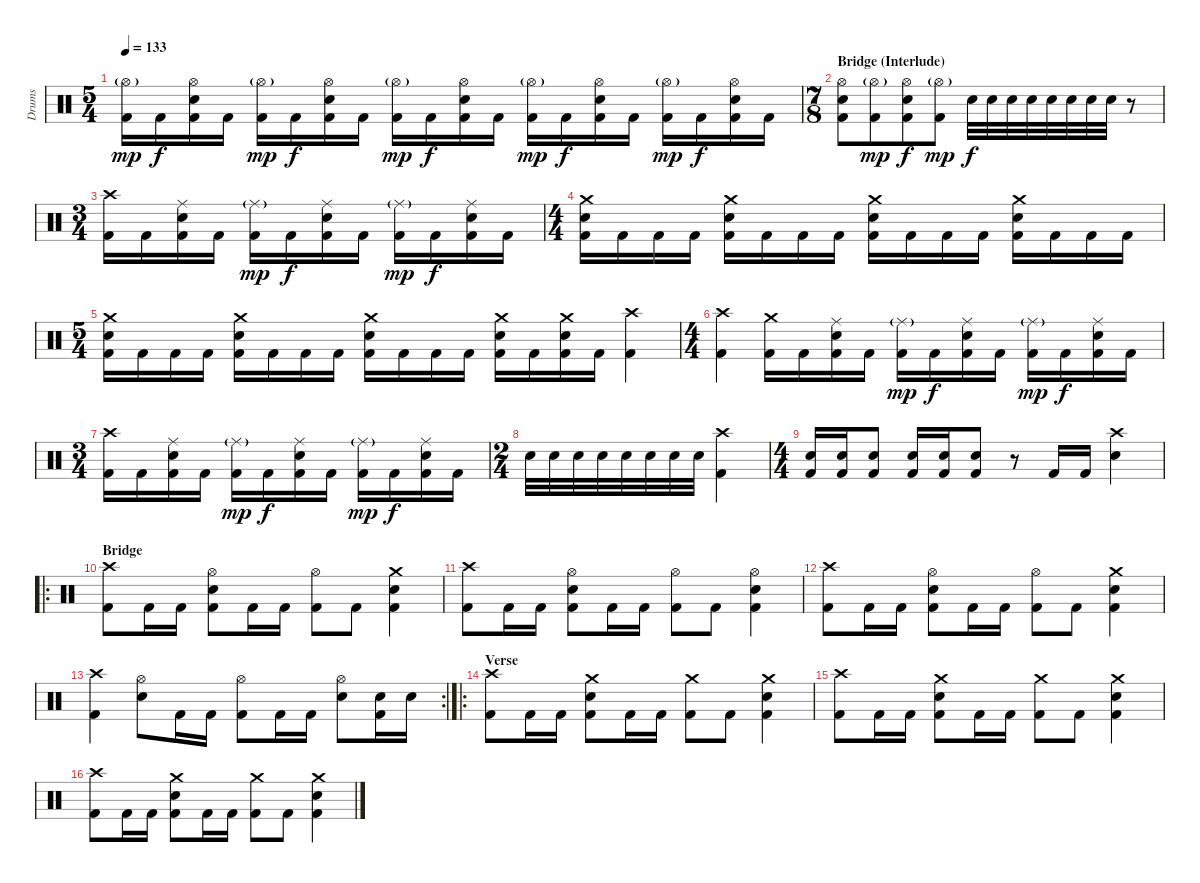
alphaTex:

\track ("Drums" "Drums") {instrument percussion}
\staff {score}
\articulation defaults
\ts (5 4)
\tempo 133
\clef neutral
\ks c
("Hi-Hat (open)"{g} "Kick (hit) 2").16{dy mp} "Kick (hit) 2".16{dy f} ("Hi-Hat (open)" "Electric Snare (hit)" "Kick (hit) 2").16 "Kick (hit) 2".16 ("Hi-Hat (open)"{g} "Kick (hit) 2").16{dy mp} "Kick (hit) 2".16{dy f} ("Hi-Hat (open)" "Electric Snare (hit)" "Kick (hit) 2").16 "Kick (hit) 2".16 ("Hi-Hat (open)"{g} "Kick (hit) 2").16{dy mp} "Kick (hit) 2".16{dy f} ("Hi-Hat (open)" "Electric Snare (hit)" "Kick (hit) 2").16 "Kick (hit) 2".16 ("Hi-Hat (open)"{g} "Kick (hit) 2").16{dy mp} "Kick (hit) 2".16{dy f} ("Hi-Hat (open)" "Electric Snare (hit)" "Kick (hit) 2").16 "Kick (hit) 2".16 ("Hi-Hat (open)"{g} "Kick (hit) 2").16{dy mp} "Kick (hit) 2".16{dy f} ("Hi-Hat (open)" "Electric Snare (hit)" "Kick (hit) 2").16 "Kick (hit) 2".16 |
\ts (7 8)
\section ("" "Bridge (Interlude)")
("Hi-Hat (open)" "Electric Snare (hit)" "Kick (hit) 2").8 ("Hi-Hat (open)"{g} "Kick (hit) 2").8{dy mp} ("Hi-Hat (open)" "Electric Snare (hit)" "Kick (hit) 2").8{dy f} ("Hi-Hat (open)"{g} "Kick (hit) 2").8{dy mp} "Electric Snare (hit)".32{dy f} "Electric Snare (hit)".32 "Electric Snare (hit)".32 "Electric Snare (hit)".32 "Electric Snare (hit)".32 "Electric Snare (hit)".32 "Electric Snare (hit)".32 "Electric Snare (hit)".32 r.8 |
\ts (3 4)
("Crash high (hit)" "Kick (hit) 2").16 "Kick (hit) 2".16 ("Ride (middle)" "Electric Snare (hit)" "Kick (hit) 2").16 "Kick (hit) 2".16 ("Ride (middle)"{g} "Kick (hit) 2").16{dy mp} "Kick (hit) 2".16{dy f} ("Ride (middle)" "Electric Snare (hit)" "Kick (hit) 2").16 "Kick (hit) 2".16 ("Ride (middle)"{g} "Kick (hit) 2").16{dy mp} "Kick (hit) 2".16{dy f} ("Ride (middle)" "Electric Snare (hit)" "Kick (hit) 2").16 "Kick (hit) 2".16 |
\ts (4 4)
("Crash medium (hit)" "Electric Snare (hit)" "Kick (hit) 2").16 "Kick (hit) 2".16 "Kick (hit) 2".16 "Kick (hit) 2".16 ("Crash medium (hit)" "Electric Snare (hit)" "Kick (hit) 2").16 "Kick (hit) 2".16 "Kick (hit) 2".16 "Kick (hit) 2".16 ("Crash medium (hit)" "Electric Snare (hit)" "Kick (hit) 2").16 "Kick (hit) 2".16 "Kick (hit) 2".16 "Kick (hit) 2".16 ("Crash medium (hit)" "Electric Snare (hit)" "Kick (hit) 2").16 "Kick (hit) 2".16 "Kick (hit) 2".16 "Kick (hit) 2".16 |
\ts (5 4)
("Crash medium (hit)" "Electric Snare (hit)" "Kick (hit) 2").16 "Kick (hit) 2".16 "Kick (hit) 2".16 "Kick (hit) 2".16 ("Crash medium (hit)" "Electric Snare (hit)" "Kick (hit) 2").16 "Kick (hit) 2".16 "Kick (hit) 2".16 "Kick (hit) 2".16 ("Crash medium (hit)" "Electric Snare (hit)" "Kick (hit) 2").16 "Kick (hit) 2".16 "Kick (hit) 2".16 "Kick (hit) 2".16 ("Crash medium (hit)" "Electric Snare (hit)" "Kick (hit) 2").16 "Kick (hit) 2".16 ("Crash medium (hit)" "Electric Snare (hit)" "Kick (hit) 2").16 "Kick (hit) 2".16 ("Crash high (hit)" "Kick (hit) 2").4 |
\ts (4 4)
("Crash high (hit)" "Kick (hit) 2").4 ("Crash medium (hit)" "Kick (hit) 2").16 "Kick (hit) 2".16 ("Ride (middle)" "Electric Snare (hit)" "Kick (hit) 2").16 "Kick (hit) 2".16 ("Ride (middle)"{g} "Kick (hit) 2").16{dy mp} "Kick (hit) 2".16{dy f} ("Ride (middle)" "Electric Snare (hit)" "Kick (hit) 2").16 "Kick (hit) 2".16 ("Ride (middle)"{g} "Kick (hit) 2").16{dy mp} "Kick (hit) 2".16{dy f} ("Ride (middle)" "Electric Snare (hit)" "Kick (hit) 2").16 "Kick (hit) 2".16 |
\ts (3 4)
("Crash high (hit)" "Kick (hit) 2").16 "Kick (hit) 2".16 ("Ride (middle)" "Electric Snare (hit)" "Kick (hit) 2").16 "Kick (hit) 2".16 ("Ride (middle)"{g} "Kick (hit) 2").16{dy mp} "Kick (hit) 2".16{dy f} ("Ride (middle)" "Electric Snare (hit)" "Kick (hit) 2").16 "Kick (hit) 2".16 ("Ride (middle)"{g} "Kick (hit) 2").16{dy mp} "Kick (hit) 2".16{dy f} ("Ride (middle)" "Electric Snare (hit)" "Kick (hit) 2").16 "Kick (hit) 2".16 |
\ts (2 4)
"Electric Snare (hit)".32 "Electric Snare (hit)".32 "Electric Snare (hit)".32 "Electric Snare (hit)".32 "Electric Snare (hit)".32 "Electric Snare (hit)".32 "Electric Snare (hit)".32 "Electric Snare (hit)".32 ("Crash high (hit)" "Kick (hit) 2").4 |
\ts (4 4)
("Electric Snare (hit)" "Kick (hit) 2").16 ("Electric Snare (hit)" "Kick (hit) 2").16 ("Electric Snare (hit)" "Kick (hit) 2").8 ("Electric Snare (hit)" "Kick (hit) 2").16 ("Electric Snare (hit)" "Kick (hit) 2").16 ("Electric Snare (hit)" "Kick (hit) 2").8 r.8 "Kick (hit) 2".16 "Kick (hit) 2".16 ("Crash high (hit)" "Electric Snare (hit)").4 |
\ro
\section ("" "Bridge")
("Crash high (hit)" "Kick (hit) 2").8 "Kick (hit) 2".16 "Kick (hit) 2".16 ("Hi-Hat (open)" "Electric Snare (hit)" "Kick (hit) 2").8 "Kick (hit) 2".16 "Kick (hit) 2".16 ("Hi-Hat (open)" "Kick (hit) 2").8 "Kick (hit) 2".8 ("Crash medium (hit)" "Electric Snare (hit)" "Kick (hit) 2").4 |
("Crash high (hit)" "Kick (hit) 2").8 "Kick (hit) 2".16 "Kick (hit) 2".16 ("Hi-Hat (open)" "Electric Snare (hit)" "Kick (hit) 2").8 "Kick (hit) 2".16 "Kick (hit) 2".16 ("Hi-Hat (open)" "Kick (hit) 2").8 "Kick (hit) 2".8 ("Hi-Hat (open)" "Electric Snare (hit)" "Kick (hit) 2").4 |
("Crash high (hit)" "Kick (hit) 2").8 "Kick (hit) 2".16 "Kick (hit) 2".16 ("Hi-Hat (open)" "Electric Snare (hit)" "Kick (hit) 2").8 "Kick (hit) 2".16 "Kick (hit) 2".16 ("Hi-Hat (open)" "Kick (hit) 2").8 "Kick (hit) 2".8 ("Crash medium (hit)" "Electric Snare (hit)" "Kick (hit) 2").4 |
\rc 2
("Crash high (hit)" "Kick (hit) 2").4 ("Hi-Hat (open)" "Electric Snare (hit)").8 "Kick (hit) 2".16 "Kick (hit) 2".16 ("Hi-Hat (open)" "Kick (hit) 2").8 "Kick (hit) 2".16 "Kick (hit) 2".16 ("Hi-Hat (open)" "Electric Snare (hit)").8 ("Electric Snare (hit)" "Kick (hit) 2").16 "Electric Snare (hit)".16 |
\ro
\section ("" "Verse")
("Crash high (hit)" "Kick (hit) 2").8 "Kick (hit) 2".16 "Kick (hit) 2".16 ("Crash medium (hit)" "Electric Snare (hit)" "Kick (hit) 2").8 "Kick (hit) 2".16 "Kick (hit) 2".16 ("Crash medium (hit)" "Kick (hit) 2").8 "Kick (hit) 2".8 ("Crash medium (hit)" "Electric Snare (hit)" "Kick (hit) 2").4 |
("Crash high (hit)" "Kick (hit) 2").8 "Kick (hit) 2".16 "Kick (hit) 2".16 ("Crash medium (hit)" "Electric Snare (hit)" "Kick (hit) 2").8 "Kick (hit) 2".16 "Kick (hit) 2".16 ("Crash medium (hit)" "Kick (hit) 2").8 "Kick (hit) 2".8 ("Crash medium (hit)" "Electric Snare (hit)" "Kick (hit) 2").4 |
("Crash high (hit)" "Kick (hit) 2").8 "Kick (hit) 2".16 "Kick (hit) 2".16 ("Crash medium (hit)" "Electric Snare (hit)" "Kick (hit) 2").8 "Kick (hit) 2".16 "Kick (hit) 2".16 ("Crash medium (hit)" "Kick (hit) 2").8 "Kick (hit) 2".8 ("Crash medium (hit)" "Electric Snare (hit)" "Kick (hit) 2").4
